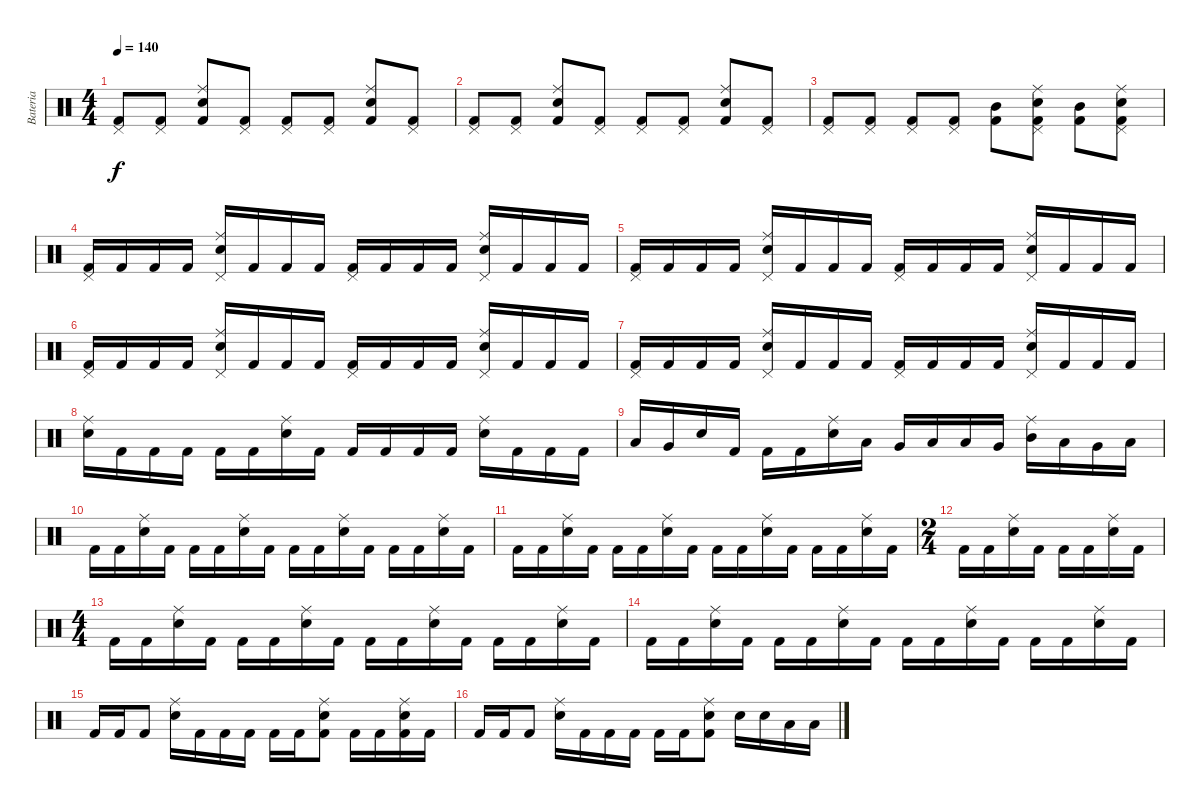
\track ("Bateria" "Bateria") {instrument percussion}
\staff {score}
\articulation defaults
\ts (4 4)
\tempo 140
\clef neutral
\ks c
("Kick (hit) 2" "Pedal Hi-Hat (hit)").8{dy f} ("Kick (hit) 2" "Pedal Hi-Hat (hit)").8 ("Kick (hit) 2" "Electric Snare (hit)" "Ride (middle)").8 ("Kick (hit) 2" "Pedal Hi-Hat (hit)").8 ("Kick (hit) 2" "Pedal Hi-Hat (hit)").8 ("Kick (hit) 2" "Pedal Hi-Hat (hit)").8 ("Kick (hit) 2" "Electric Snare (hit)" "Ride (middle)").8 ("Kick (hit) 2" "Pedal Hi-Hat (hit)").8 |
("Kick (hit) 2" "Pedal Hi-Hat (hit)").8 ("Kick (hit) 2" "Pedal Hi-Hat (hit)").8 ("Kick (hit) 2" "Electric Snare (hit)" "Ride (middle)").8 ("Kick (hit) 2" "Pedal Hi-Hat (hit)").8 ("Kick (hit) 2" "Pedal Hi-Hat (hit)").8 ("Kick (hit) 2" "Pedal Hi-Hat (hit)").8 ("Kick (hit) 2" "Electric Snare (hit)" "Ride (middle)").8 ("Kick (hit) 2" "Pedal Hi-Hat (hit)").8 |
("Kick (hit) 2" "Pedal Hi-Hat (hit)").8 ("Kick (hit) 2" "Pedal Hi-Hat (hit)").8 ("Kick (hit) 2" "Pedal Hi-Hat (hit)").8 ("Kick (hit) 2" "Pedal Hi-Hat (hit)").8 ("Kick (hit) 2" "Mid Tom (hit)").8 ("Kick (hit) 2" "Pedal Hi-Hat (hit)" "Ride (middle)" "Electric Snare (hit)").8 ("Kick (hit) 2" "Mid Tom (hit)").8 ("Kick (hit) 2" "Pedal Hi-Hat (hit)" "Ride (middle)" "Electric Snare (hit)").8 |
("Kick (hit) 2" "Pedal Hi-Hat (hit)").16 "Kick (hit) 2".16 "Kick (hit) 2".16 "Kick (hit) 2".16 ("Electric Snare (hit)" "Ride (middle)" "Pedal Hi-Hat (hit)").16 "Kick (hit) 2".16 "Kick (hit) 2".16 "Kick (hit) 2".16 ("Kick (hit) 2" "Pedal Hi-Hat (hit)").16 "Kick (hit) 2".16 "Kick (hit) 2".16 "Kick (hit) 2".16 ("Electric Snare (hit)" "Ride (middle)" "Pedal Hi-Hat (hit)").16 "Kick (hit) 2".16 "Kick (hit) 2".16 "Kick (hit) 2".16 |
("Kick (hit) 2" "Pedal Hi-Hat (hit)").16 "Kick (hit) 2".16 "Kick (hit) 2".16 "Kick (hit) 2".16 ("Electric Snare (hit)" "Ride (middle)" "Pedal Hi-Hat (hit)").16 "Kick (hit) 2".16 "Kick (hit) 2".16 "Kick (hit) 2".16 ("Kick (hit) 2" "Pedal Hi-Hat (hit)").16 "Kick (hit) 2".16 "Kick (hit) 2".16 "Kick (hit) 2".16 ("Electric Snare (hit)" "Ride (middle)" "Pedal Hi-Hat (hit)").16 "Kick (hit) 2".16 "Kick (hit) 2".16 "Kick (hit) 2".16 |
("Kick (hit) 2" "Pedal Hi-Hat (hit)").16 "Kick (hit) 2".16 "Kick (hit) 2".16 "Kick (hit) 2".16 ("Electric Snare (hit)" "Ride (middle)" "Pedal Hi-Hat (hit)").16 "Kick (hit) 2".16 "Kick (hit) 2".16 "Kick (hit) 2".16 ("Kick (hit) 2" "Pedal Hi-Hat (hit)").16 "Kick (hit) 2".16 "Kick (hit) 2".16 "Kick (hit) 2".16 ("Electric Snare (hit)" "Ride (middle)" "Pedal Hi-Hat (hit)").16 "Kick (hit) 2".16 "Kick (hit) 2".16 "Kick (hit) 2".16 |
("Kick (hit) 2" "Pedal Hi-Hat (hit)").16 "Kick (hit) 2".16 "Kick (hit) 2".16 "Kick (hit) 2".16 ("Electric Snare (hit)" "Ride (middle)" "Pedal Hi-Hat (hit)").16 "Kick (hit) 2".16 "Kick (hit) 2".16 "Kick (hit) 2".16 ("Kick (hit) 2" "Pedal Hi-Hat (hit)").16 "Kick (hit) 2".16 "Kick (hit) 2".16 "Kick (hit) 2".16 ("Electric Snare (hit)" "Ride (middle)" "Pedal Hi-Hat (hit)").16 "Kick (hit) 2".16 "Kick (hit) 2".16 "Kick (hit) 2".16 |
("Electric Snare (hit)" "Ride (middle)").16 "Kick (hit) 2".16 "Kick (hit) 2".16 "Kick (hit) 2".16 "Kick (hit) 2".16 "Kick (hit) 2".16 ("Electric Snare (hit)" "Ride (middle)").16 "Kick (hit) 2".16 "Kick (hit) 2".16 "Kick (hit) 2".16 "Kick (hit) 2".16 "Kick (hit) 2".16 ("Electric Snare (hit)" "Ride (middle)").16 "Kick (hit) 2".16 "Kick (hit) 2".16 "Kick (hit) 2".16 |
"Low Tom (hit)".16 "Very Low Tom (hit)".16 "Electric Snare (hit)".16 "Kick (hit) 2".16 "Kick (hit) 2".16 "Kick (hit) 2".16 ("Electric Snare (hit)" "Ride (middle)").16 "Low Tom (hit)".16 "Very Low Tom (hit)".16 "Low Floor Tom (hit)".16 "Low Tom (hit)".16 "Very Low Tom (hit)".16 ("Mid Tom (hit)" "Ride (middle)").16 "Low Tom (hit)".16 "Very Low Tom (hit)".16 "Low Floor Tom (hit)".16 |
"Kick (hit) 2".16 "Kick (hit) 2".16 ("Electric Snare (hit)" "Ride (middle)").16 "Kick (hit) 2".16 "Kick (hit) 2".16 "Kick (hit) 2".16 ("Electric Snare (hit)" "Ride (middle)").16 "Kick (hit) 2".16 "Kick (hit) 2".16 "Kick (hit) 2".16 ("Electric Snare (hit)" "Ride (middle)").16 "Kick (hit) 2".16 "Kick (hit) 2".16 "Kick (hit) 2".16 ("Electric Snare (hit)" "Ride (middle)").16 "Kick (hit) 2".16 |
"Kick (hit) 2".16 "Kick (hit) 2".16 ("Electric Snare (hit)" "Ride (middle)").16 "Kick (hit) 2".16 "Kick (hit) 2".16 "Kick (hit) 2".16 ("Electric Snare (hit)" "Ride (middle)").16 "Kick (hit) 2".16 "Kick (hit) 2".16 "Kick (hit) 2".16 ("Electric Snare (hit)" "Ride (middle)").16 "Kick (hit) 2".16 "Kick (hit) 2".16 "Kick (hit) 2".16 ("Electric Snare (hit)" "Ride (middle)").16 "Kick (hit) 2".16 |
\ts (2 4)
"Kick (hit) 2".16 "Kick (hit) 2".16 ("Electric Snare (hit)" "Ride (middle)").16 "Kick (hit) 2".16 "Kick (hit) 2".16 "Kick (hit) 2".16 ("Electric Snare (hit)" "Ride (middle)").16 "Kick (hit) 2".16 |
\ts (4 4)
"Kick (hit) 2".16 "Kick (hit) 2".16 ("Electric Snare (hit)" "Ride (middle)").16 "Kick (hit) 2".16 "Kick (hit) 2".16 "Kick (hit) 2".16 ("Electric Snare (hit)" "Ride (middle)").16 "Kick (hit) 2".16 "Kick (hit) 2".16 "Kick (hit) 2".16 ("Electric Snare (hit)" "Ride (middle)").16 "Kick (hit) 2".16 "Kick (hit) 2".16 "Kick (hit) 2".16 ("Electric Snare (hit)" "Ride (middle)").16 "Kick (hit) 2".16 |
"Kick (hit) 2".16 "Kick (hit) 2".16 ("Electric Snare (hit)" "Ride (middle)").16 "Kick (hit) 2".16 "Kick (hit) 2".16 "Kick (hit) 2".16 ("Electric Snare (hit)" "Ride (middle)").16 "Kick (hit) 2".16 "Kick (hit) 2".16 "Kick (hit) 2".16 ("Electric Snare (hit)" "Ride (middle)").16 "Kick (hit) 2".16 "Kick (hit) 2".16 "Kick (hit) 2".16 ("Electric Snare (hit)" "Ride (middle)").16 "Kick (hit) 2".16 |
"Kick (hit) 2".16 "Kick (hit) 2".16 "Kick (hit) 2".8 ("Electric Snare (hit)" "Ride (middle)").16 "Kick (hit) 2".16 "Kick (hit) 2".16 "Kick (hit) 2".16 "Kick (hit) 2".16 "Kick (hit) 2".16 ("Kick (hit) 2" "Electric Snare (hit)" "Ride (middle)").8 "Kick (hit) 2".16 "Kick (hit) 2".16 ("Kick (hit) 2" "Electric Snare (hit)" "Ride (middle)").16 "Kick (hit) 2".16 |
"Kick (hit) 2".16 "Kick (hit) 2".16 "Kick (hit) 2".8 ("Electric Snare (hit)" "Ride (middle)").16 "Kick (hit) 2".16 "Kick (hit) 2".16 "Kick (hit) 2".16 "Kick (hit) 2".16 "Kick (hit) 2".16 ("Kick (hit) 2" "Electric Snare (hit)" "Ride (middle)").8 "Electric Snare (hit)".16 "Electric Snare (hit)".16 "Low Tom (hit)".16 "Low Tom (hit)".16
